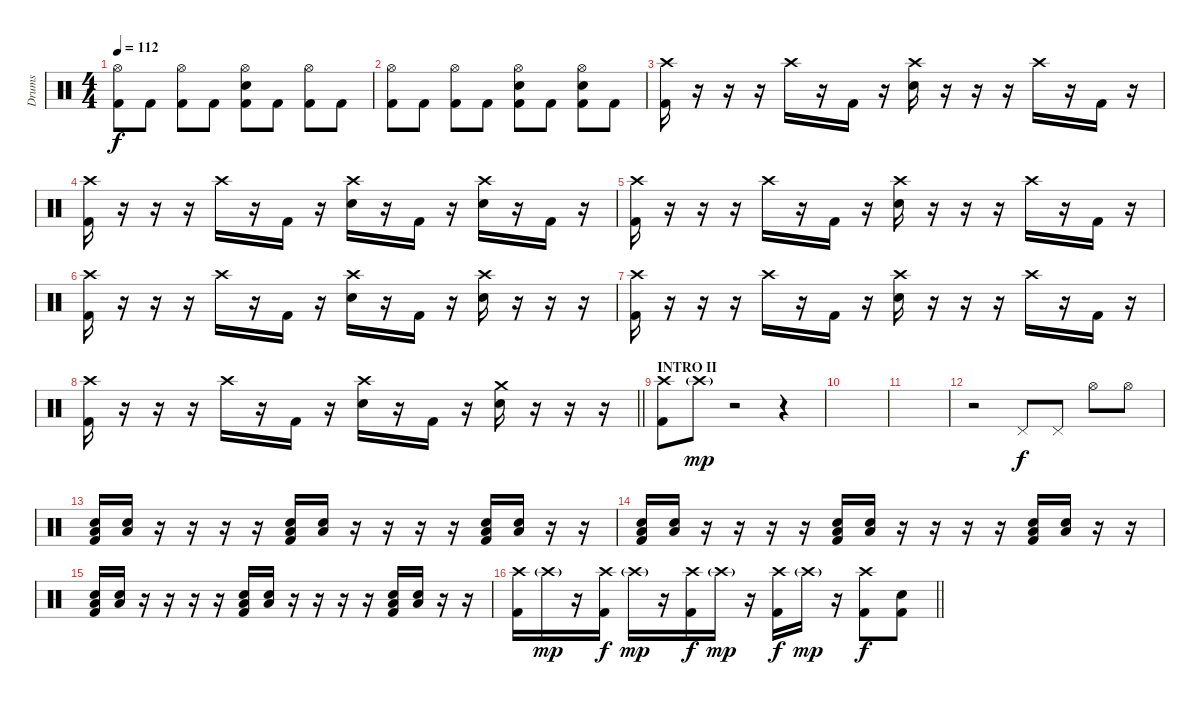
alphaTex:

\track ("Drums" "Drums") {instrument percussion}
\staff
\articulation defaults
\ts (4 4)
\tempo 112
\clef neutral
\ks c
("Hi-Hat (open)" "Kick (hit) 2").8{dy f} "Kick (hit) 2".8 ("Hi-Hat (open)" "Kick (hit) 2").8 "Kick (hit) 2".8 ("Hi-Hat (open)" "Snare (hit) 2" "Kick (hit) 2").8 "Kick (hit) 2".8 ("Hi-Hat (open)" "Kick (hit) 2").8 "Kick (hit) 2".8 |
("Hi-Hat (open)" "Kick (hit) 2").8 "Kick (hit) 2".8 ("Hi-Hat (open)" "Kick (hit) 2").8 "Kick (hit) 2".8 ("Hi-Hat (open)" "Snare (hit) 2" "Kick (hit) 2").8 "Kick (hit) 2".8 ("Hi-Hat (open)" "Snare (hit) 2" "Kick (hit) 2").8 "Kick (hit) 2".8 |
("Crash high (hit)" "Kick (hit) 2").16 r.16 r.16 r.16 "Crash high (hit)".16 r.16 "Kick (hit) 2".16 r.16 ("Crash high (hit)" "Snare (hit) 2").16 r.16 r.16 r.16 "Crash high (hit)".16 r.16 "Kick (hit) 2".16 r.16 |
("Crash high (hit)" "Kick (hit) 2").16 r.16 r.16 r.16 "Crash high (hit)".16 r.16 "Kick (hit) 2".16 r.16 ("Crash high (hit)" "Snare (hit) 2").16 r.16 "Kick (hit) 2".16 r.16 ("Crash high (hit)" "Snare (hit) 2").16 r.16 "Kick (hit) 2".16 r.16 |
("Crash high (hit)" "Kick (hit) 2").16 r.16 r.16 r.16 "Crash high (hit)".16 r.16 "Kick (hit) 2".16 r.16 ("Crash high (hit)" "Snare (hit) 2").16 r.16 r.16 r.16 "Crash high (hit)".16 r.16 "Kick (hit) 2".16 r.16 |
("Crash high (hit)" "Kick (hit) 2").16 r.16 r.16 r.16 "Crash high (hit)".16 r.16 "Kick (hit) 2".16 r.16 ("Crash high (hit)" "Snare (hit) 2").16 r.16 "Kick (hit) 2".16 r.16 ("Crash high (hit)" "Snare (hit) 2").16 r.16 r.16 r.16 |
("Crash high (hit)" "Kick (hit) 2").16 r.16 r.16 r.16 "Crash high (hit)".16 r.16 "Kick (hit) 2".16 r.16 ("Crash high (hit)" "Snare (hit) 2").16 r.16 r.16 r.16 "Crash high (hit)".16 r.16 "Kick (hit) 2".16 r.16 |
\barLineRight lightlight
("Crash high (hit)" "Kick (hit) 2").16 r.16 r.16 r.16 "Crash high (hit)".16 r.16 "Kick (hit) 2".16 r.16 ("Crash high (hit)" "Snare (hit) 2").16 r.16 "Kick (hit) 2".16 r.16 ("Crash medium (hit)" "Snare (hit) 2").16 r.16 r.16 r.16 |
\section ("" "INTRO II")
("Crash high (hit)" "Kick (hit) 2").8 "Crash high (hit)"{g}.8{dy mp} r.2 r.4 |
|
|
r.2 "Pedal Hi-Hat (hit)".8{dy f} "Pedal Hi-Hat (hit)".8 "Hi-Hat (open)".8 "Hi-Hat (open)".8 |
("Low Floor Tom (hit)" "Snare (hit) 2" "Kick (hit) 2").16 ("Low Floor Tom (hit)" "Snare (hit) 2").16 r.16 r.16 r.16 r.16 ("Low Floor Tom (hit)" "Snare (hit) 2" "Kick (hit) 2").16 ("Low Floor Tom (hit)" "Snare (hit) 2").16 r.16 r.16 r.16 r.16 ("Low Floor Tom (hit)" "Snare (hit) 2" "Kick (hit) 2").16 ("Low Floor Tom (hit)" "Snare (hit) 2").16 r.16 r.16 |
("Low Floor Tom (hit)" "Snare (hit) 2" "Kick (hit) 2").16 ("Low Floor Tom (hit)" "Snare (hit) 2").16 r.16 r.16 r.16 r.16 ("Low Floor Tom (hit)" "Snare (hit) 2" "Kick (hit) 2").16 ("Low Floor Tom (hit)" "Snare (hit) 2").16 r.16 r.16 r.16 r.16 ("Low Floor Tom (hit)" "Snare (hit) 2" "Kick (hit) 2").16 ("Low Floor Tom (hit)" "Snare (hit) 2").16 r.16 r.16 |
("Low Floor Tom (hit)" "Snare (hit) 2" "Kick (hit) 2").16 ("Low Floor Tom (hit)" "Snare (hit) 2").16 r.16 r.16 r.16 r.16 ("Low Floor Tom (hit)" "Snare (hit) 2" "Kick (hit) 2").16 ("Low Floor Tom (hit)" "Snare (hit) 2").16 r.16 r.16 r.16 r.16 ("Low Floor Tom (hit)" "Snare (hit) 2" "Kick (hit) 2").16 ("Low Floor Tom (hit)" "Snare (hit) 2").16 r.16 r.16 |
\barLineRight lightlight
("Crash high (hit)" "Kick (hit) 2").16 "Crash high (hit)"{g}.16{dy mp} r.16 ("Crash high (hit)" "Kick (hit) 2").16{dy f} "Crash high (hit)"{g}.16{dy mp} r.16 ("Crash high (hit)" "Kick (hit) 2").16{dy f} "Crash high (hit)"{g}.16{dy mp} r.16 ("Crash high (hit)" "Kick (hit) 2").16{dy f} "Crash high (hit)"{g}.16{dy mp} r.16 ("Crash high (hit)" "Kick (hit) 2").8{dy f} ("Snare (hit) 2" "Kick (hit) 2").8
